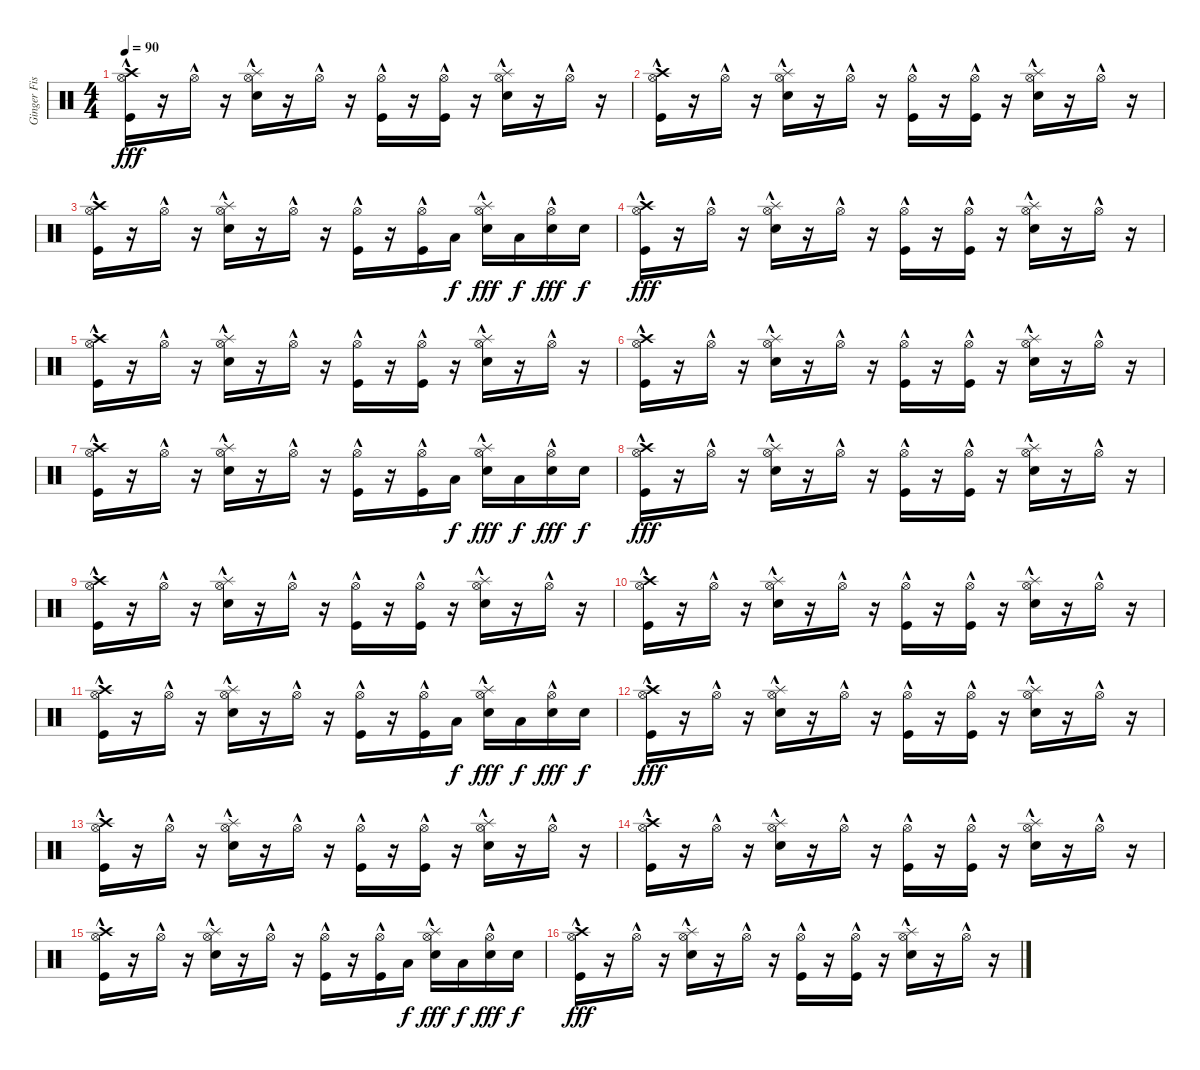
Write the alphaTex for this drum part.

\track ("Ginger Fish" "Ginger Fis") {instrument percussion}
\staff {score}
\articulation defaults
\ts (4 4)
\tempo 90
\clef neutral
\ks c
("Crash high (hit)" "Kick (hit)"{hac} "Hi-Hat (open)"{hac}).16{dy fff} r.16 "Hi-Hat (open)"{hac}.16 r.16 ("Splash (hit)"{hac} "Electric Snare (hit)"{hac} "Hi-Hat (open)"{hac}).16 r.16 "Hi-Hat (open)"{hac}.16 r.16 ("Kick (hit)"{hac} "Hi-Hat (open)"{hac}).16 r.16 ("Kick (hit)"{hac} "Hi-Hat (open)"{hac}).16 r.16 ("Splash (hit)"{hac} "Electric Snare (hit)"{hac} "Hi-Hat (open)"{hac}).16 r.16 "Hi-Hat (open)"{hac}.16 r.16 |
("Crash high (hit)" "Kick (hit)"{hac} "Hi-Hat (open)"{hac}).16 r.16 "Hi-Hat (open)"{hac}.16 r.16 ("Splash (hit)"{hac} "Electric Snare (hit)"{hac} "Hi-Hat (open)"{hac}).16 r.16 "Hi-Hat (open)"{hac}.16 r.16 ("Kick (hit)"{hac} "Hi-Hat (open)"{hac}).16 r.16 ("Kick (hit)"{hac} "Hi-Hat (open)"{hac}).16 r.16 ("Splash (hit)"{hac} "Electric Snare (hit)"{hac} "Hi-Hat (open)"{hac}).16 r.16 "Hi-Hat (open)"{hac}.16 r.16 |
("Crash high (hit)" "Kick (hit)"{hac} "Hi-Hat (open)"{hac}).16 r.16 "Hi-Hat (open)"{hac}.16 r.16 ("Splash (hit)"{hac} "Electric Snare (hit)"{hac} "Hi-Hat (open)"{hac}).16 r.16 "Hi-Hat (open)"{hac}.16 r.16 ("Kick (hit)"{hac} "Hi-Hat (open)"{hac}).16 r.16 ("Kick (hit)"{hac} "Hi-Hat (open)"{hac}).16 "Low Tom (hit)".16{dy f} ("Splash (hit)"{hac} "Electric Snare (hit)"{hac} "Hi-Hat (open)"{hac}).16{dy fff} "Low Floor Tom (hit)".16{dy f} ("Electric Snare (hit)"{hac} "Hi-Hat (open)"{hac}).16{dy fff} "Electric Snare (hit)".16{dy f} |
("Crash high (hit)" "Kick (hit)"{hac} "Hi-Hat (open)"{hac}).16{dy fff} r.16 "Hi-Hat (open)"{hac}.16 r.16 ("Splash (hit)"{hac} "Electric Snare (hit)"{hac} "Hi-Hat (open)"{hac}).16 r.16 "Hi-Hat (open)"{hac}.16 r.16 ("Kick (hit)"{hac} "Hi-Hat (open)"{hac}).16 r.16 ("Kick (hit)"{hac} "Hi-Hat (open)"{hac}).16 r.16 ("Splash (hit)"{hac} "Electric Snare (hit)"{hac} "Hi-Hat (open)"{hac}).16 r.16 "Hi-Hat (open)"{hac}.16 r.16 |
("Crash high (hit)" "Kick (hit)"{hac} "Hi-Hat (open)"{hac}).16 r.16 "Hi-Hat (open)"{hac}.16 r.16 ("Splash (hit)"{hac} "Electric Snare (hit)"{hac} "Hi-Hat (open)"{hac}).16 r.16 "Hi-Hat (open)"{hac}.16 r.16 ("Kick (hit)"{hac} "Hi-Hat (open)"{hac}).16 r.16 ("Kick (hit)"{hac} "Hi-Hat (open)"{hac}).16 r.16 ("Splash (hit)"{hac} "Electric Snare (hit)"{hac} "Hi-Hat (open)"{hac}).16 r.16 "Hi-Hat (open)"{hac}.16 r.16 |
("Crash high (hit)" "Kick (hit)"{hac} "Hi-Hat (open)"{hac}).16 r.16 "Hi-Hat (open)"{hac}.16 r.16 ("Splash (hit)"{hac} "Electric Snare (hit)"{hac} "Hi-Hat (open)"{hac}).16 r.16 "Hi-Hat (open)"{hac}.16 r.16 ("Kick (hit)"{hac} "Hi-Hat (open)"{hac}).16 r.16 ("Kick (hit)"{hac} "Hi-Hat (open)"{hac}).16 r.16 ("Splash (hit)"{hac} "Electric Snare (hit)"{hac} "Hi-Hat (open)"{hac}).16 r.16 "Hi-Hat (open)"{hac}.16 r.16 |
("Crash high (hit)" "Kick (hit)"{hac} "Hi-Hat (open)"{hac}).16 r.16 "Hi-Hat (open)"{hac}.16 r.16 ("Splash (hit)"{hac} "Electric Snare (hit)"{hac} "Hi-Hat (open)"{hac}).16 r.16 "Hi-Hat (open)"{hac}.16 r.16 ("Kick (hit)"{hac} "Hi-Hat (open)"{hac}).16 r.16 ("Kick (hit)"{hac} "Hi-Hat (open)"{hac}).16 "Low Tom (hit)".16{dy f} ("Splash (hit)"{hac} "Electric Snare (hit)"{hac} "Hi-Hat (open)"{hac}).16{dy fff} "Low Floor Tom (hit)".16{dy f} ("Electric Snare (hit)"{hac} "Hi-Hat (open)"{hac}).16{dy fff} "Electric Snare (hit)".16{dy f} |
("Crash high (hit)" "Kick (hit)"{hac} "Hi-Hat (open)"{hac}).16{dy fff} r.16 "Hi-Hat (open)"{hac}.16 r.16 ("Splash (hit)"{hac} "Electric Snare (hit)"{hac} "Hi-Hat (open)"{hac}).16 r.16 "Hi-Hat (open)"{hac}.16 r.16 ("Kick (hit)"{hac} "Hi-Hat (open)"{hac}).16 r.16 ("Kick (hit)"{hac} "Hi-Hat (open)"{hac}).16 r.16 ("Splash (hit)"{hac} "Electric Snare (hit)"{hac} "Hi-Hat (open)"{hac}).16 r.16 "Hi-Hat (open)"{hac}.16 r.16 |
("Crash high (hit)" "Kick (hit)"{hac} "Hi-Hat (open)"{hac}).16 r.16 "Hi-Hat (open)"{hac}.16 r.16 ("Splash (hit)"{hac} "Electric Snare (hit)"{hac} "Hi-Hat (open)"{hac}).16 r.16 "Hi-Hat (open)"{hac}.16 r.16 ("Kick (hit)"{hac} "Hi-Hat (open)"{hac}).16 r.16 ("Kick (hit)"{hac} "Hi-Hat (open)"{hac}).16 r.16 ("Splash (hit)"{hac} "Electric Snare (hit)"{hac} "Hi-Hat (open)"{hac}).16 r.16 "Hi-Hat (open)"{hac}.16 r.16 |
("Crash high (hit)" "Kick (hit)"{hac} "Hi-Hat (open)"{hac}).16 r.16 "Hi-Hat (open)"{hac}.16 r.16 ("Splash (hit)"{hac} "Electric Snare (hit)"{hac} "Hi-Hat (open)"{hac}).16 r.16 "Hi-Hat (open)"{hac}.16 r.16 ("Kick (hit)"{hac} "Hi-Hat (open)"{hac}).16 r.16 ("Kick (hit)"{hac} "Hi-Hat (open)"{hac}).16 r.16 ("Splash (hit)"{hac} "Electric Snare (hit)"{hac} "Hi-Hat (open)"{hac}).16 r.16 "Hi-Hat (open)"{hac}.16 r.16 |
("Crash high (hit)" "Kick (hit)"{hac} "Hi-Hat (open)"{hac}).16 r.16 "Hi-Hat (open)"{hac}.16 r.16 ("Splash (hit)"{hac} "Electric Snare (hit)"{hac} "Hi-Hat (open)"{hac}).16 r.16 "Hi-Hat (open)"{hac}.16 r.16 ("Kick (hit)"{hac} "Hi-Hat (open)"{hac}).16 r.16 ("Kick (hit)"{hac} "Hi-Hat (open)"{hac}).16 "Low Tom (hit)".16{dy f} ("Splash (hit)"{hac} "Electric Snare (hit)"{hac} "Hi-Hat (open)"{hac}).16{dy fff} "Low Floor Tom (hit)".16{dy f} ("Electric Snare (hit)"{hac} "Hi-Hat (open)"{hac}).16{dy fff} "Electric Snare (hit)".16{dy f} |
("Crash high (hit)" "Kick (hit)"{hac} "Hi-Hat (open)"{hac}).16{dy fff} r.16 "Hi-Hat (open)"{hac}.16 r.16 ("Splash (hit)"{hac} "Electric Snare (hit)"{hac} "Hi-Hat (open)"{hac}).16 r.16 "Hi-Hat (open)"{hac}.16 r.16 ("Kick (hit)"{hac} "Hi-Hat (open)"{hac}).16 r.16 ("Kick (hit)"{hac} "Hi-Hat (open)"{hac}).16 r.16 ("Splash (hit)"{hac} "Electric Snare (hit)"{hac} "Hi-Hat (open)"{hac}).16 r.16 "Hi-Hat (open)"{hac}.16 r.16 |
("Crash high (hit)" "Kick (hit)"{hac} "Hi-Hat (open)"{hac}).16 r.16 "Hi-Hat (open)"{hac}.16 r.16 ("Splash (hit)"{hac} "Electric Snare (hit)"{hac} "Hi-Hat (open)"{hac}).16 r.16 "Hi-Hat (open)"{hac}.16 r.16 ("Kick (hit)"{hac} "Hi-Hat (open)"{hac}).16 r.16 ("Kick (hit)"{hac} "Hi-Hat (open)"{hac}).16 r.16 ("Splash (hit)"{hac} "Electric Snare (hit)"{hac} "Hi-Hat (open)"{hac}).16 r.16 "Hi-Hat (open)"{hac}.16 r.16 |
("Crash high (hit)" "Kick (hit)"{hac} "Hi-Hat (open)"{hac}).16 r.16 "Hi-Hat (open)"{hac}.16 r.16 ("Splash (hit)"{hac} "Electric Snare (hit)"{hac} "Hi-Hat (open)"{hac}).16 r.16 "Hi-Hat (open)"{hac}.16 r.16 ("Kick (hit)"{hac} "Hi-Hat (open)"{hac}).16 r.16 ("Kick (hit)"{hac} "Hi-Hat (open)"{hac}).16 r.16 ("Splash (hit)"{hac} "Electric Snare (hit)"{hac} "Hi-Hat (open)"{hac}).16 r.16 "Hi-Hat (open)"{hac}.16 r.16 |
("Crash high (hit)" "Kick (hit)"{hac} "Hi-Hat (open)"{hac}).16 r.16 "Hi-Hat (open)"{hac}.16 r.16 ("Splash (hit)"{hac} "Electric Snare (hit)"{hac} "Hi-Hat (open)"{hac}).16 r.16 "Hi-Hat (open)"{hac}.16 r.16 ("Kick (hit)"{hac} "Hi-Hat (open)"{hac}).16 r.16 ("Kick (hit)"{hac} "Hi-Hat (open)"{hac}).16 "Low Tom (hit)".16{dy f} ("Splash (hit)"{hac} "Electric Snare (hit)"{hac} "Hi-Hat (open)"{hac}).16{dy fff} "Low Floor Tom (hit)".16{dy f} ("Electric Snare (hit)"{hac} "Hi-Hat (open)"{hac}).16{dy fff} "Electric Snare (hit)".16{dy f} |
("Crash high (hit)" "Kick (hit)"{hac} "Hi-Hat (open)"{hac}).16{dy fff} r.16 "Hi-Hat (open)"{hac}.16 r.16 ("Splash (hit)"{hac} "Electric Snare (hit)"{hac} "Hi-Hat (open)"{hac}).16 r.16 "Hi-Hat (open)"{hac}.16 r.16 ("Kick (hit)"{hac} "Hi-Hat (open)"{hac}).16 r.16 ("Kick (hit)"{hac} "Hi-Hat (open)"{hac}).16 r.16 ("Splash (hit)"{hac} "Electric Snare (hit)"{hac} "Hi-Hat (open)"{hac}).16 r.16 "Hi-Hat (open)"{hac}.16 r.16
